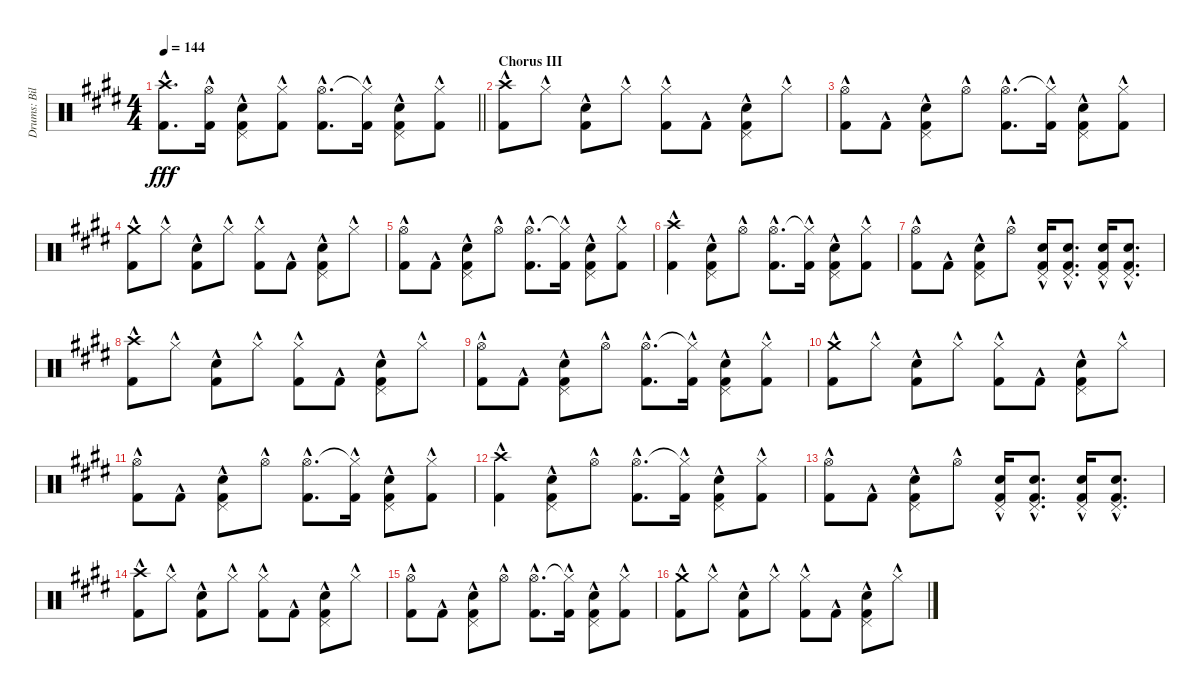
\track ("Drums: Bill" "Drums: Bil") {instrument percussion}
\staff {score}
\articulation defaults
\ts (4 4)
\tempo 144
\clef neutral
\barLineRight lightlight
\ks e
("Crash high (hit)"{hac} "Kick (hit) 2"{hac}).8{d dy fff} ("Hi-Hat (open)"{hac} "Kick (hit) 2"{hac}).16 ("Pedal Hi-Hat (hit)"{hac} "Snare (hit) 2"{hac} "Kick (hit) 2"{hac}).8 ("Hi-Hat (closed)"{hac} "Kick (hit) 2"{hac}).8 ("Hi-Hat (open)"{hac} "Kick (hit) 2"{hac}).8{d} ("Hi-Hat (closed)"{t} "Kick (hit) 2"{hac}).16 ("Pedal Hi-Hat (hit)"{hac} "Snare (hit) 2"{hac} "Kick (hit) 2"{hac}).8 ("Hi-Hat (closed)"{hac} "Kick (hit) 2"{hac}).8 |
\section ("" "Chorus III")
("Crash high (hit)"{hac} "Kick (hit) 2"{hac}).8 "Hi-Hat (closed)"{hac}.8 ("Snare (hit) 2"{hac} "Kick (hit) 2"{hac}).8 "Hi-Hat (closed)"{hac}.8 ("Hi-Hat (closed)"{hac} "Kick (hit) 2"{hac}).8 "Kick (hit) 2"{hac}.8 ("Pedal Hi-Hat (hit)"{hac} "Snare (hit) 2"{hac} "Kick (hit) 2"{hac}).8 "Hi-Hat (closed)"{hac}.8 |
("Hi-Hat (open)"{hac} "Kick (hit) 2"{hac}).8 "Kick (hit) 2"{hac}.8 ("Pedal Hi-Hat (hit)"{hac} "Snare (hit) 2"{hac} "Kick (hit) 2"{hac}).8 "Hi-Hat (open)"{hac}.8 ("Hi-Hat (open)"{hac} "Kick (hit) 2"{hac}).8{d} ("Hi-Hat (closed)"{t} "Kick (hit) 2"{hac}).16 ("Pedal Hi-Hat (hit)"{hac} "Snare (hit) 2"{hac} "Kick (hit) 2"{hac}).8 ("Hi-Hat (closed)"{hac} "Kick (hit) 2"{hac}).8 |
("Crash medium (hit)"{hac} "Kick (hit) 2"{hac}).8 "Hi-Hat (closed)"{hac}.8 ("Snare (hit) 2"{hac} "Kick (hit) 2"{hac}).8 "Hi-Hat (closed)"{hac}.8 ("Hi-Hat (closed)"{hac} "Kick (hit) 2"{hac}).8 "Kick (hit) 2"{hac}.8 ("Pedal Hi-Hat (hit)"{hac} "Snare (hit) 2"{hac} "Kick (hit) 2"{hac}).8 "Hi-Hat (closed)"{hac}.8 |
("Hi-Hat (open)"{hac} "Kick (hit) 2"{hac}).8 "Kick (hit) 2"{hac}.8 ("Pedal Hi-Hat (hit)"{hac} "Snare (hit) 2"{hac} "Kick (hit) 2"{hac}).8 "Hi-Hat (open)"{hac}.8 ("Hi-Hat (open)"{hac} "Kick (hit) 2"{hac}).8{d} ("Hi-Hat (closed)"{t} "Kick (hit) 2"{hac}).16 ("Pedal Hi-Hat (hit)"{hac} "Snare (hit) 2"{hac} "Kick (hit) 2"{hac}).8 ("Hi-Hat (closed)"{hac} "Kick (hit) 2"{hac}).8 |
("Crash high (hit)"{hac} "Kick (hit) 2"{hac}).4 ("Pedal Hi-Hat (hit)"{hac} "Snare (hit) 2"{hac} "Kick (hit) 2"{hac}).8 "Hi-Hat (open)"{hac}.8 ("Hi-Hat (open)"{hac} "Kick (hit) 2"{hac}).8{d} ("Hi-Hat (closed)"{t} "Kick (hit) 2"{hac}).16 ("Pedal Hi-Hat (hit)"{hac} "Snare (hit) 2"{hac} "Kick (hit) 2"{hac}).8 ("Hi-Hat (closed)"{hac} "Kick (hit) 2"{hac}).8 |
("Hi-Hat (open)"{hac} "Kick (hit) 2"{hac}).8 "Kick (hit) 2"{hac}.8 ("Pedal Hi-Hat (hit)"{hac} "Snare (hit) 2"{hac} "Kick (hit) 2"{hac}).8 "Hi-Hat (open)"{hac}.8 ("Pedal Hi-Hat (hit)"{hac} "Snare (hit) 2"{hac} "Kick (hit) 2"{hac}).16 ("Pedal Hi-Hat (hit)"{hac} "Snare (hit) 2"{hac} "Kick (hit) 2"{hac}).8{d} ("Pedal Hi-Hat (hit)"{hac} "Snare (hit) 2"{hac} "Kick (hit) 2"{hac}).16 ("Pedal Hi-Hat (hit)"{hac} "Snare (hit) 2"{hac} "Kick (hit) 2"{hac}).8{d} |
("Crash high (hit)"{hac} "Kick (hit) 2"{hac}).8 "Hi-Hat (closed)"{hac}.8 ("Snare (hit) 2"{hac} "Kick (hit) 2"{hac}).8 "Hi-Hat (closed)"{hac}.8 ("Hi-Hat (closed)"{hac} "Kick (hit) 2"{hac}).8 "Kick (hit) 2"{hac}.8 ("Pedal Hi-Hat (hit)"{hac} "Snare (hit) 2"{hac} "Kick (hit) 2"{hac}).8 "Hi-Hat (closed)"{hac}.8 |
("Hi-Hat (open)"{hac} "Kick (hit) 2"{hac}).8 "Kick (hit) 2"{hac}.8 ("Pedal Hi-Hat (hit)"{hac} "Snare (hit) 2"{hac} "Kick (hit) 2"{hac}).8 "Hi-Hat (open)"{hac}.8 ("Hi-Hat (open)"{hac} "Kick (hit) 2"{hac}).8{d} ("Hi-Hat (closed)"{t} "Kick (hit) 2"{hac}).16 ("Pedal Hi-Hat (hit)"{hac} "Snare (hit) 2"{hac} "Kick (hit) 2"{hac}).8 ("Hi-Hat (closed)"{hac} "Kick (hit) 2"{hac}).8 |
("Crash medium (hit)"{hac} "Kick (hit) 2"{hac}).8 "Hi-Hat (closed)"{hac}.8 ("Snare (hit) 2"{hac} "Kick (hit) 2"{hac}).8 "Hi-Hat (closed)"{hac}.8 ("Hi-Hat (closed)"{hac} "Kick (hit) 2"{hac}).8 "Kick (hit) 2"{hac}.8 ("Pedal Hi-Hat (hit)"{hac} "Snare (hit) 2"{hac} "Kick (hit) 2"{hac}).8 "Hi-Hat (closed)"{hac}.8 |
("Hi-Hat (open)"{hac} "Kick (hit) 2"{hac}).8 "Kick (hit) 2"{hac}.8 ("Pedal Hi-Hat (hit)"{hac} "Snare (hit) 2"{hac} "Kick (hit) 2"{hac}).8 "Hi-Hat (open)"{hac}.8 ("Hi-Hat (open)"{hac} "Kick (hit) 2"{hac}).8{d} ("Hi-Hat (closed)"{t} "Kick (hit) 2"{hac}).16 ("Pedal Hi-Hat (hit)"{hac} "Snare (hit) 2"{hac} "Kick (hit) 2"{hac}).8 ("Hi-Hat (closed)"{hac} "Kick (hit) 2"{hac}).8 |
("Crash high (hit)"{hac} "Kick (hit) 2"{hac}).4 ("Pedal Hi-Hat (hit)"{hac} "Snare (hit) 2"{hac} "Kick (hit) 2"{hac}).8 "Hi-Hat (open)"{hac}.8 ("Hi-Hat (open)"{hac} "Kick (hit) 2"{hac}).8{d} ("Hi-Hat (closed)"{t} "Kick (hit) 2"{hac}).16 ("Pedal Hi-Hat (hit)"{hac} "Snare (hit) 2"{hac} "Kick (hit) 2"{hac}).8 ("Hi-Hat (closed)"{hac} "Kick (hit) 2"{hac}).8 |
("Hi-Hat (open)"{hac} "Kick (hit) 2"{hac}).8 "Kick (hit) 2"{hac}.8 ("Pedal Hi-Hat (hit)"{hac} "Snare (hit) 2"{hac} "Kick (hit) 2"{hac}).8 "Hi-Hat (open)"{hac}.8 ("Pedal Hi-Hat (hit)"{hac} "Snare (hit) 2"{hac} "Kick (hit) 2"{hac}).16 ("Pedal Hi-Hat (hit)"{hac} "Snare (hit) 2"{hac} "Kick (hit) 2"{hac}).8{d} ("Pedal Hi-Hat (hit)"{hac} "Snare (hit) 2"{hac} "Kick (hit) 2"{hac}).16 ("Pedal Hi-Hat (hit)"{hac} "Snare (hit) 2"{hac} "Kick (hit) 2"{hac}).8{d} |
("Crash high (hit)"{hac} "Kick (hit) 2"{hac}).8 "Hi-Hat (closed)"{hac}.8 ("Snare (hit) 2"{hac} "Kick (hit) 2"{hac}).8 "Hi-Hat (closed)"{hac}.8 ("Hi-Hat (closed)"{hac} "Kick (hit) 2"{hac}).8 "Kick (hit) 2"{hac}.8 ("Pedal Hi-Hat (hit)"{hac} "Snare (hit) 2"{hac} "Kick (hit) 2"{hac}).8 "Hi-Hat (closed)"{hac}.8 |
("Hi-Hat (open)"{hac} "Kick (hit) 2"{hac}).8 "Kick (hit) 2"{hac}.8 ("Pedal Hi-Hat (hit)"{hac} "Snare (hit) 2"{hac} "Kick (hit) 2"{hac}).8 "Hi-Hat (open)"{hac}.8 ("Hi-Hat (open)"{hac} "Kick (hit) 2"{hac}).8{d} ("Hi-Hat (closed)"{t} "Kick (hit) 2"{hac}).16 ("Pedal Hi-Hat (hit)"{hac} "Snare (hit) 2"{hac} "Kick (hit) 2"{hac}).8 ("Hi-Hat (closed)"{hac} "Kick (hit) 2"{hac}).8 |
("Crash medium (hit)"{hac} "Kick (hit) 2"{hac}).8 "Hi-Hat (closed)"{hac}.8 ("Snare (hit) 2"{hac} "Kick (hit) 2"{hac}).8 "Hi-Hat (closed)"{hac}.8 ("Hi-Hat (closed)"{hac} "Kick (hit) 2"{hac}).8 "Kick (hit) 2"{hac}.8 ("Pedal Hi-Hat (hit)"{hac} "Snare (hit) 2"{hac} "Kick (hit) 2"{hac}).8 "Hi-Hat (closed)"{hac}.8
